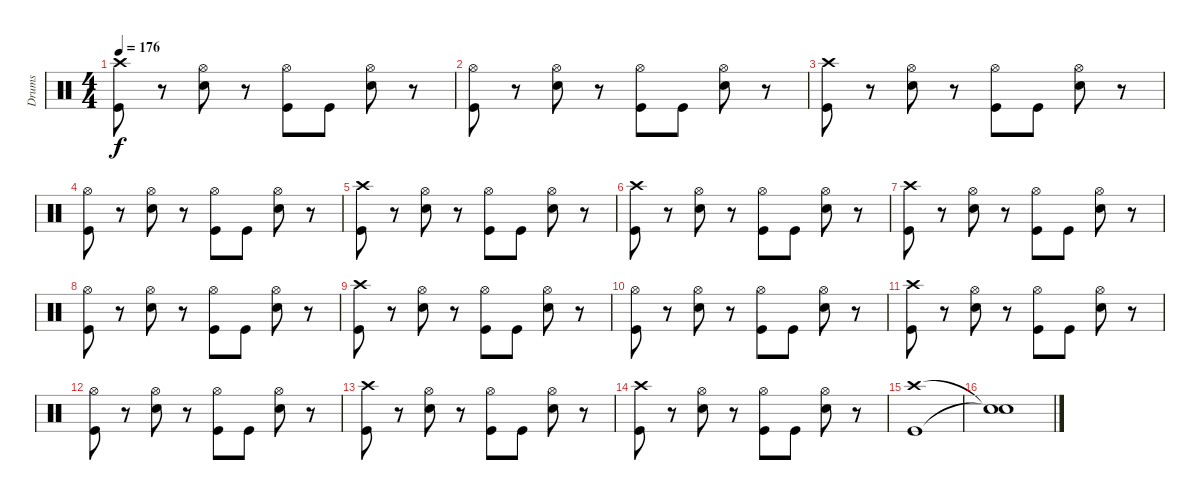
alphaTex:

\track ("Drums" "Drums") {instrument percussion}
\staff {score}
\articulation defaults
\ts (4 4)
\tempo 176
\clef neutral
\ks c
("Crash high (hit)" "Kick (hit)").8{dy f} r.8 ("Hi-Hat (open)" "Snare (hit) 2").8 r.8 ("Hi-Hat (open)" "Kick (hit)").8 "Kick (hit)".8 ("Hi-Hat (open)" "Snare (hit) 2").8 r.8 |
("Hi-Hat (open)" "Kick (hit)").8 r.8 ("Hi-Hat (open)" "Snare (hit) 2").8 r.8 ("Hi-Hat (open)" "Kick (hit)").8 "Kick (hit)".8 ("Hi-Hat (open)" "Snare (hit) 2").8 r.8 |
("Crash high (hit)" "Kick (hit)").8 r.8 ("Hi-Hat (open)" "Snare (hit) 2").8 r.8 ("Hi-Hat (open)" "Kick (hit)").8 "Kick (hit)".8 ("Hi-Hat (open)" "Snare (hit) 2").8 r.8 |
("Hi-Hat (open)" "Kick (hit)").8 r.8 ("Hi-Hat (open)" "Snare (hit) 2").8 r.8 ("Hi-Hat (open)" "Kick (hit)").8 "Kick (hit)".8 ("Hi-Hat (open)" "Snare (hit) 2").8 r.8 |
("Crash high (hit)" "Kick (hit)").8 r.8 ("Hi-Hat (open)" "Snare (hit) 2").8 r.8 ("Hi-Hat (open)" "Kick (hit)").8 "Kick (hit)".8 ("Hi-Hat (open)" "Snare (hit) 2").8 r.8 |
("Crash high (hit)" "Kick (hit)").8 r.8 ("Hi-Hat (open)" "Snare (hit) 2").8 r.8 ("Hi-Hat (open)" "Kick (hit)").8 "Kick (hit)".8 ("Hi-Hat (open)" "Snare (hit) 2").8 r.8 |
("Crash high (hit)" "Kick (hit)").8 r.8 ("Hi-Hat (open)" "Snare (hit) 2").8 r.8 ("Hi-Hat (open)" "Kick (hit)").8 "Kick (hit)".8 ("Hi-Hat (open)" "Snare (hit) 2").8 r.8 |
("Hi-Hat (open)" "Kick (hit)").8 r.8 ("Hi-Hat (open)" "Snare (hit) 2").8 r.8 ("Hi-Hat (open)" "Kick (hit)").8 "Kick (hit)".8 ("Hi-Hat (open)" "Snare (hit) 2").8 r.8 |
("Crash high (hit)" "Kick (hit)").8 r.8 ("Hi-Hat (open)" "Snare (hit) 2").8 r.8 ("Hi-Hat (open)" "Kick (hit)").8 "Kick (hit)".8 ("Hi-Hat (open)" "Snare (hit) 2").8 r.8 |
("Hi-Hat (open)" "Kick (hit)").8 r.8 ("Hi-Hat (open)" "Snare (hit) 2").8 r.8 ("Hi-Hat (open)" "Kick (hit)").8 "Kick (hit)".8 ("Hi-Hat (open)" "Snare (hit) 2").8 r.8 |
("Crash high (hit)" "Kick (hit)").8 r.8 ("Hi-Hat (open)" "Snare (hit) 2").8 r.8 ("Hi-Hat (open)" "Kick (hit)").8 "Kick (hit)".8 ("Hi-Hat (open)" "Snare (hit) 2").8 r.8 |
("Hi-Hat (open)" "Kick (hit)").8 r.8 ("Hi-Hat (open)" "Snare (hit) 2").8 r.8 ("Hi-Hat (open)" "Kick (hit)").8 "Kick (hit)".8 ("Hi-Hat (open)" "Snare (hit) 2").8 r.8 |
("Crash high (hit)" "Kick (hit)").8 r.8 ("Hi-Hat (open)" "Snare (hit) 2").8 r.8 ("Hi-Hat (open)" "Kick (hit)").8 "Kick (hit)".8 ("Hi-Hat (open)" "Snare (hit) 2").8 r.8 |
("Crash high (hit)" "Kick (hit)").8 r.8 ("Hi-Hat (open)" "Snare (hit) 2").8 r.8 ("Hi-Hat (open)" "Kick (hit)").8 "Kick (hit)".8 ("Hi-Hat (open)" "Snare (hit) 2").8 r.8 |
("Crash high (hit)" "Kick (hit)").1 |
("Snare (hit)"{t} "Snare (hit)"{t}).1
